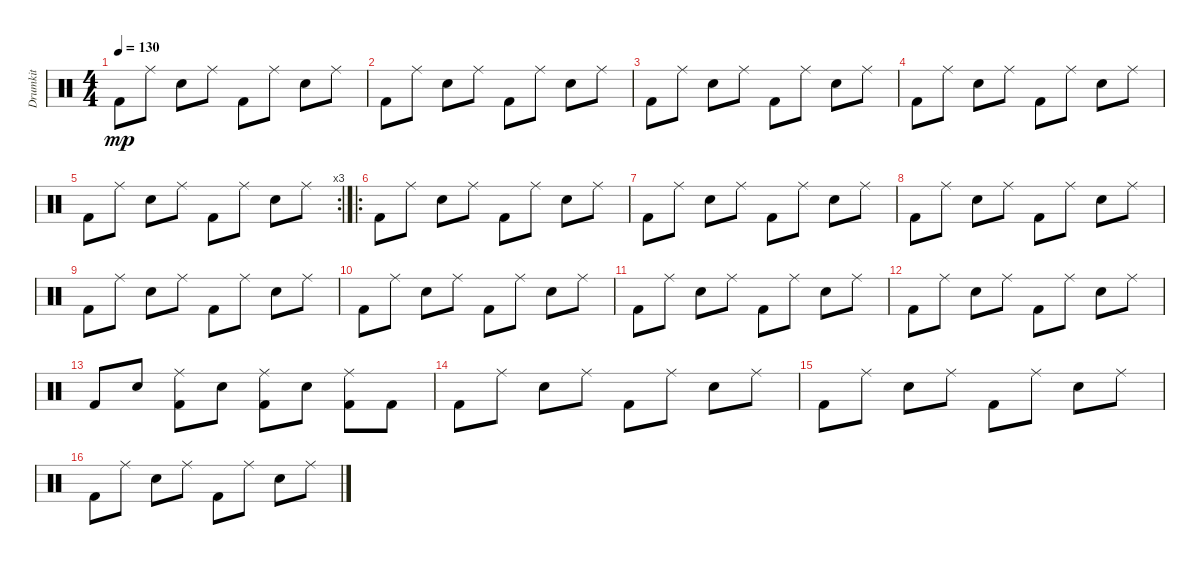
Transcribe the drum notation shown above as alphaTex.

\track ("Drumkit" "Drumkit") {instrument percussion}
\staff {score}
\articulation defaults
\ts (4 4)
\tempo 130
\clef neutral
\ks c "Kick (hit) 2".8{dy mp} "Ride (middle)".8 "Snare (hit) 2".8 "Ride (middle)".8 "Kick (hit) 2".8 "Ride (middle)".8 "Snare (hit) 2".8 "Ride (middle)".8
|
"Kick (hit) 2".8 "Ride (middle)".8 "Snare (hit) 2".8 "Ride (middle)".8 "Kick (hit) 2".8 "Ride (middle)".8 "Snare (hit) 2".8 "Ride (middle)".8 |
"Kick (hit) 2".8 "Ride (middle)".8 "Snare (hit) 2".8 "Ride (middle)".8 "Kick (hit) 2".8 "Ride (middle)".8 "Snare (hit) 2".8 "Ride (middle)".8 |
"Kick (hit) 2".8 "Ride (middle)".8 "Snare (hit) 2".8 "Ride (middle)".8 "Kick (hit) 2".8 "Ride (middle)".8 "Snare (hit) 2".8 "Ride (middle)".8 |
\rc 3 "Kick (hit) 2".8 "Ride (middle)".8 "Snare (hit) 2".8 "Ride (middle)".8 "Kick (hit) 2".8 "Ride (middle)".8 "Snare (hit) 2".8 "Ride (middle)".8
|
\ro "Kick (hit) 2".8 "Ride (middle)".8 "Snare (hit) 2".8 "Ride (middle)".8 "Kick (hit) 2".8 "Ride (middle)".8 "Snare (hit) 2".8 "Ride (middle)".8
|
"Kick (hit) 2".8 "Ride (middle)".8 "Snare (hit) 2".8 "Ride (middle)".8 "Kick (hit) 2".8 "Ride (middle)".8 "Snare (hit) 2".8 "Ride (middle)".8 |
"Kick (hit) 2".8 "Ride (middle)".8 "Snare (hit) 2".8 "Ride (middle)".8 "Kick (hit) 2".8 "Ride (middle)".8 "Snare (hit) 2".8 "Ride (middle)".8 |
"Kick (hit) 2".8 "Ride (middle)".8 "Snare (hit) 2".8 "Ride (middle)".8 "Kick (hit) 2".8 "Ride (middle)".8 "Snare (hit) 2".8 "Ride (middle)".8 |
"Kick (hit) 2".8 "Ride (middle)".8 "Snare (hit) 2".8 "Ride (middle)".8 "Kick (hit) 2".8 "Ride (middle)".8 "Snare (hit) 2".8 "Ride (middle)".8 |
"Kick (hit) 2".8 "Ride (middle)".8 "Snare (hit) 2".8 "Ride (middle)".8 "Kick (hit) 2".8 "Ride (middle)".8 "Snare (hit) 2".8 "Ride (middle)".8 |
"Kick (hit) 2".8 "Ride (middle)".8 "Snare (hit) 2".8 "Ride (middle)".8 "Kick (hit) 2".8 "Ride (middle)".8 "Snare (hit) 2".8 "Ride (middle)".8 |
"Kick (hit) 2".8 "Snare (hit) 2".8 ("Kick (hit) 2" "Ride (middle)").8 "Snare (hit) 2".8 ("Kick (hit) 2" "Ride (middle)").8 "Snare (hit) 2".8 ("Kick (hit) 2" "Ride (middle)").8 "Kick (hit) 2".8 |
"Kick (hit) 2".8 "Ride (middle)".8 "Snare (hit) 2".8 "Ride (middle)".8 "Kick (hit) 2".8 "Ride (middle)".8 "Snare (hit) 2".8 "Ride (middle)".8 |
"Kick (hit) 2".8 "Ride (middle)".8 "Snare (hit) 2".8 "Ride (middle)".8 "Kick (hit) 2".8 "Ride (middle)".8 "Snare (hit) 2".8 "Ride (middle)".8 |
"Kick (hit) 2".8 "Ride (middle)".8 "Snare (hit) 2".8 "Ride (middle)".8 "Kick (hit) 2".8 "Ride (middle)".8 "Snare (hit) 2".8 "Ride (middle)".8
